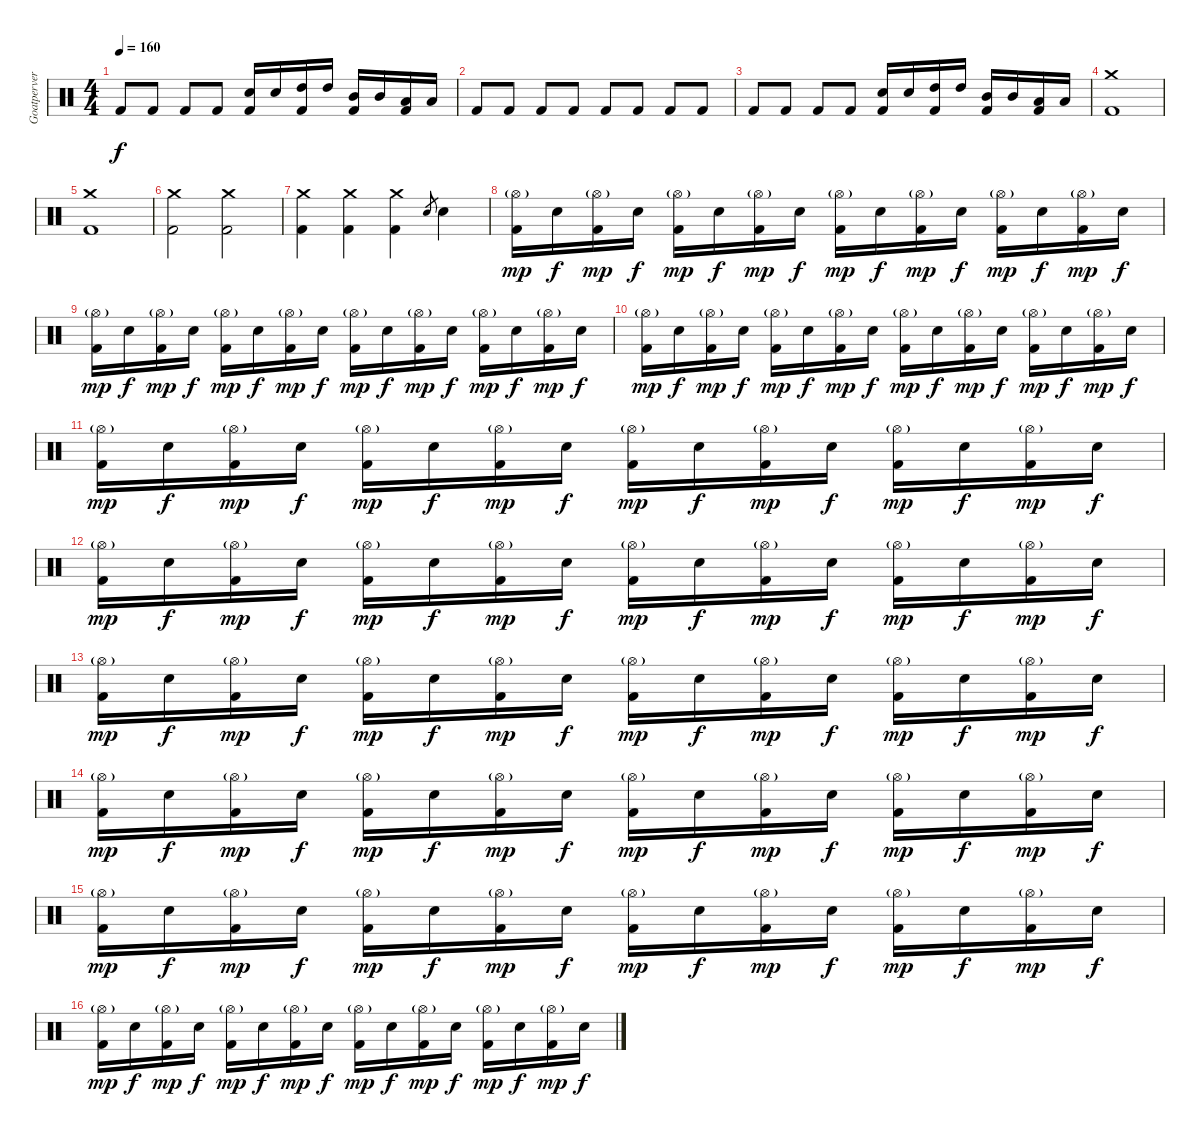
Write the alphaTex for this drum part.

\track ("Goatpervertor " "Goatperver") {instrument percussion}
\staff {score}
\articulation defaults
\ts (4 4)
\tempo 160
\clef neutral
\ks c "Kick (hit) 2".8{dy f} "Kick (hit) 2".8 "Kick (hit) 2".8 "Kick (hit) 2".8
("Electric Snare (hit)" "Kick (hit) 2").16 "Electric Snare (hit)".16 ("High Tom (hit)" "Kick (hit) 2").16 "High Tom (hit)".16 ("Mid Tom (hit)" "Kick (hit) 2").16 "Mid Tom (hit)".16 ("Low Tom (hit)" "Kick (hit) 2").16 "Low Tom (hit)".16 |
"Kick (hit) 2".8 "Kick (hit) 2".8 "Kick (hit) 2".8 "Kick (hit) 2".8 "Kick (hit) 2".8 "Kick (hit) 2".8 "Kick (hit) 2".8 "Kick (hit) 2".8 |
"Kick (hit) 2".8 "Kick (hit) 2".8 "Kick (hit) 2".8 "Kick (hit) 2".8 ("Electric Snare (hit)" "Kick (hit) 2").16 "Electric Snare (hit)".16 ("High Tom (hit)" "Kick (hit) 2").16 "High Tom (hit)".16 ("Mid Tom (hit)" "Kick (hit) 2").16 "Mid Tom (hit)".16 ("Low Tom (hit)" "Kick (hit) 2").16 "Low Tom (hit)".16 |
("Crash medium (hit)" "Kick (hit) 2").1 |
("Crash medium (hit)" "Kick (hit) 2").1 |
("Crash medium (hit)" "Kick (hit) 2").2 ("Crash medium (hit)" "Kick (hit) 2").2 |
("Crash medium (hit)" "Kick (hit) 2").4 ("Crash medium (hit)" "Kick (hit) 2").4 ("Crash medium (hit)" "Kick (hit) 2").4 "Electric Snare (hit)".8{gr} "Electric Snare (hit)".4 |
("Hi-Hat (open)"{g} "Kick (hit) 2").16{dy mp} "Electric Snare (hit)".16{dy f} ("Hi-Hat (open)"{g} "Kick (hit) 2").16{dy mp} "Electric Snare (hit)".16{dy f} ("Hi-Hat (open)"{g} "Kick (hit) 2").16{dy mp} "Electric Snare (hit)".16{dy f} ("Hi-Hat (open)"{g} "Kick (hit) 2").16{dy mp} "Electric Snare (hit)".16{dy f} ("Hi-Hat (open)"{g} "Kick (hit) 2").16{dy mp} "Electric Snare (hit)".16{dy f} ("Hi-Hat (open)"{g} "Kick (hit) 2").16{dy mp} "Electric Snare (hit)".16{dy f} ("Hi-Hat (open)"{g} "Kick (hit) 2").16{dy mp} "Electric Snare (hit)".16{dy f} ("Hi-Hat (open)"{g} "Kick (hit) 2").16{dy mp} "Electric Snare (hit)".16{dy f} |
("Hi-Hat (open)"{g} "Kick (hit) 2").16{dy mp} "Electric Snare (hit)".16{dy f} ("Hi-Hat (open)"{g} "Kick (hit) 2").16{dy mp} "Electric Snare (hit)".16{dy f} ("Hi-Hat (open)"{g} "Kick (hit) 2").16{dy mp} "Electric Snare (hit)".16{dy f} ("Hi-Hat (open)"{g} "Kick (hit) 2").16{dy mp} "Electric Snare (hit)".16{dy f} ("Hi-Hat (open)"{g} "Kick (hit) 2").16{dy mp} "Electric Snare (hit)".16{dy f} ("Hi-Hat (open)"{g} "Kick (hit) 2").16{dy mp} "Electric Snare (hit)".16{dy f} ("Hi-Hat (open)"{g} "Kick (hit) 2").16{dy mp} "Electric Snare (hit)".16{dy f} ("Hi-Hat (open)"{g} "Kick (hit) 2").16{dy mp} "Electric Snare (hit)".16{dy f} |
("Hi-Hat (open)"{g} "Kick (hit) 2").16{dy mp} "Electric Snare (hit)".16{dy f} ("Hi-Hat (open)"{g} "Kick (hit) 2").16{dy mp} "Electric Snare (hit)".16{dy f} ("Hi-Hat (open)"{g} "Kick (hit) 2").16{dy mp} "Electric Snare (hit)".16{dy f} ("Hi-Hat (open)"{g} "Kick (hit) 2").16{dy mp} "Electric Snare (hit)".16{dy f} ("Hi-Hat (open)"{g} "Kick (hit) 2").16{dy mp} "Electric Snare (hit)".16{dy f} ("Hi-Hat (open)"{g} "Kick (hit) 2").16{dy mp} "Electric Snare (hit)".16{dy f} ("Hi-Hat (open)"{g} "Kick (hit) 2").16{dy mp} "Electric Snare (hit)".16{dy f} ("Hi-Hat (open)"{g} "Kick (hit) 2").16{dy mp} "Electric Snare (hit)".16{dy f} |
("Hi-Hat (open)"{g} "Kick (hit) 2").16{dy mp} "Electric Snare (hit)".16{dy f} ("Hi-Hat (open)"{g} "Kick (hit) 2").16{dy mp} "Electric Snare (hit)".16{dy f} ("Hi-Hat (open)"{g} "Kick (hit) 2").16{dy mp} "Electric Snare (hit)".16{dy f} ("Hi-Hat (open)"{g} "Kick (hit) 2").16{dy mp} "Electric Snare (hit)".16{dy f} ("Hi-Hat (open)"{g} "Kick (hit) 2").16{dy mp} "Electric Snare (hit)".16{dy f} ("Hi-Hat (open)"{g} "Kick (hit) 2").16{dy mp} "Electric Snare (hit)".16{dy f} ("Hi-Hat (open)"{g} "Kick (hit) 2").16{dy mp} "Electric Snare (hit)".16{dy f} ("Hi-Hat (open)"{g} "Kick (hit) 2").16{dy mp} "Electric Snare (hit)".16{dy f} |
("Hi-Hat (open)"{g} "Kick (hit) 2").16{dy mp} "Electric Snare (hit)".16{dy f} ("Hi-Hat (open)"{g} "Kick (hit) 2").16{dy mp} "Electric Snare (hit)".16{dy f} ("Hi-Hat (open)"{g} "Kick (hit) 2").16{dy mp} "Electric Snare (hit)".16{dy f} ("Hi-Hat (open)"{g} "Kick (hit) 2").16{dy mp} "Electric Snare (hit)".16{dy f} ("Hi-Hat (open)"{g} "Kick (hit) 2").16{dy mp} "Electric Snare (hit)".16{dy f} ("Hi-Hat (open)"{g} "Kick (hit) 2").16{dy mp} "Electric Snare (hit)".16{dy f} ("Hi-Hat (open)"{g} "Kick (hit) 2").16{dy mp} "Electric Snare (hit)".16{dy f} ("Hi-Hat (open)"{g} "Kick (hit) 2").16{dy mp} "Electric Snare (hit)".16{dy f} |
("Hi-Hat (open)"{g} "Kick (hit) 2").16{dy mp} "Electric Snare (hit)".16{dy f} ("Hi-Hat (open)"{g} "Kick (hit) 2").16{dy mp} "Electric Snare (hit)".16{dy f} ("Hi-Hat (open)"{g} "Kick (hit) 2").16{dy mp} "Electric Snare (hit)".16{dy f} ("Hi-Hat (open)"{g} "Kick (hit) 2").16{dy mp} "Electric Snare (hit)".16{dy f} ("Hi-Hat (open)"{g} "Kick (hit) 2").16{dy mp} "Electric Snare (hit)".16{dy f} ("Hi-Hat (open)"{g} "Kick (hit) 2").16{dy mp} "Electric Snare (hit)".16{dy f} ("Hi-Hat (open)"{g} "Kick (hit) 2").16{dy mp} "Electric Snare (hit)".16{dy f} ("Hi-Hat (open)"{g} "Kick (hit) 2").16{dy mp} "Electric Snare (hit)".16{dy f} |
("Hi-Hat (open)"{g} "Kick (hit) 2").16{dy mp} "Electric Snare (hit)".16{dy f} ("Hi-Hat (open)"{g} "Kick (hit) 2").16{dy mp} "Electric Snare (hit)".16{dy f} ("Hi-Hat (open)"{g} "Kick (hit) 2").16{dy mp} "Electric Snare (hit)".16{dy f} ("Hi-Hat (open)"{g} "Kick (hit) 2").16{dy mp} "Electric Snare (hit)".16{dy f} ("Hi-Hat (open)"{g} "Kick (hit) 2").16{dy mp} "Electric Snare (hit)".16{dy f} ("Hi-Hat (open)"{g} "Kick (hit) 2").16{dy mp} "Electric Snare (hit)".16{dy f} ("Hi-Hat (open)"{g} "Kick (hit) 2").16{dy mp} "Electric Snare (hit)".16{dy f} ("Hi-Hat (open)"{g} "Kick (hit) 2").16{dy mp} "Electric Snare (hit)".16{dy f} |
("Hi-Hat (open)"{g} "Kick (hit) 2").16{dy mp} "Electric Snare (hit)".16{dy f} ("Hi-Hat (open)"{g} "Kick (hit) 2").16{dy mp} "Electric Snare (hit)".16{dy f} ("Hi-Hat (open)"{g} "Kick (hit) 2").16{dy mp} "Electric Snare (hit)".16{dy f} ("Hi-Hat (open)"{g} "Kick (hit) 2").16{dy mp} "Electric Snare (hit)".16{dy f} ("Hi-Hat (open)"{g} "Kick (hit) 2").16{dy mp} "Electric Snare (hit)".16{dy f} ("Hi-Hat (open)"{g} "Kick (hit) 2").16{dy mp} "Electric Snare (hit)".16{dy f} ("Hi-Hat (open)"{g} "Kick (hit) 2").16{dy mp} "Electric Snare (hit)".16{dy f} ("Hi-Hat (open)"{g} "Kick (hit) 2").16{dy mp} "Electric Snare (hit)".16{dy f} |
("Hi-Hat (open)"{g} "Kick (hit) 2").16{dy mp} "Electric Snare (hit)".16{dy f} ("Hi-Hat (open)"{g} "Kick (hit) 2").16{dy mp} "Electric Snare (hit)".16{dy f} ("Hi-Hat (open)"{g} "Kick (hit) 2").16{dy mp} "Electric Snare (hit)".16{dy f} ("Hi-Hat (open)"{g} "Kick (hit) 2").16{dy mp} "Electric Snare (hit)".16{dy f} ("Hi-Hat (open)"{g} "Kick (hit) 2").16{dy mp} "Electric Snare (hit)".16{dy f} ("Hi-Hat (open)"{g} "Kick (hit) 2").16{dy mp} "Electric Snare (hit)".16{dy f} ("Hi-Hat (open)"{g} "Kick (hit) 2").16{dy mp} "Electric Snare (hit)".16{dy f} ("Hi-Hat (open)"{g} "Kick (hit) 2").16{dy mp} "Electric Snare (hit)".16{dy f}
